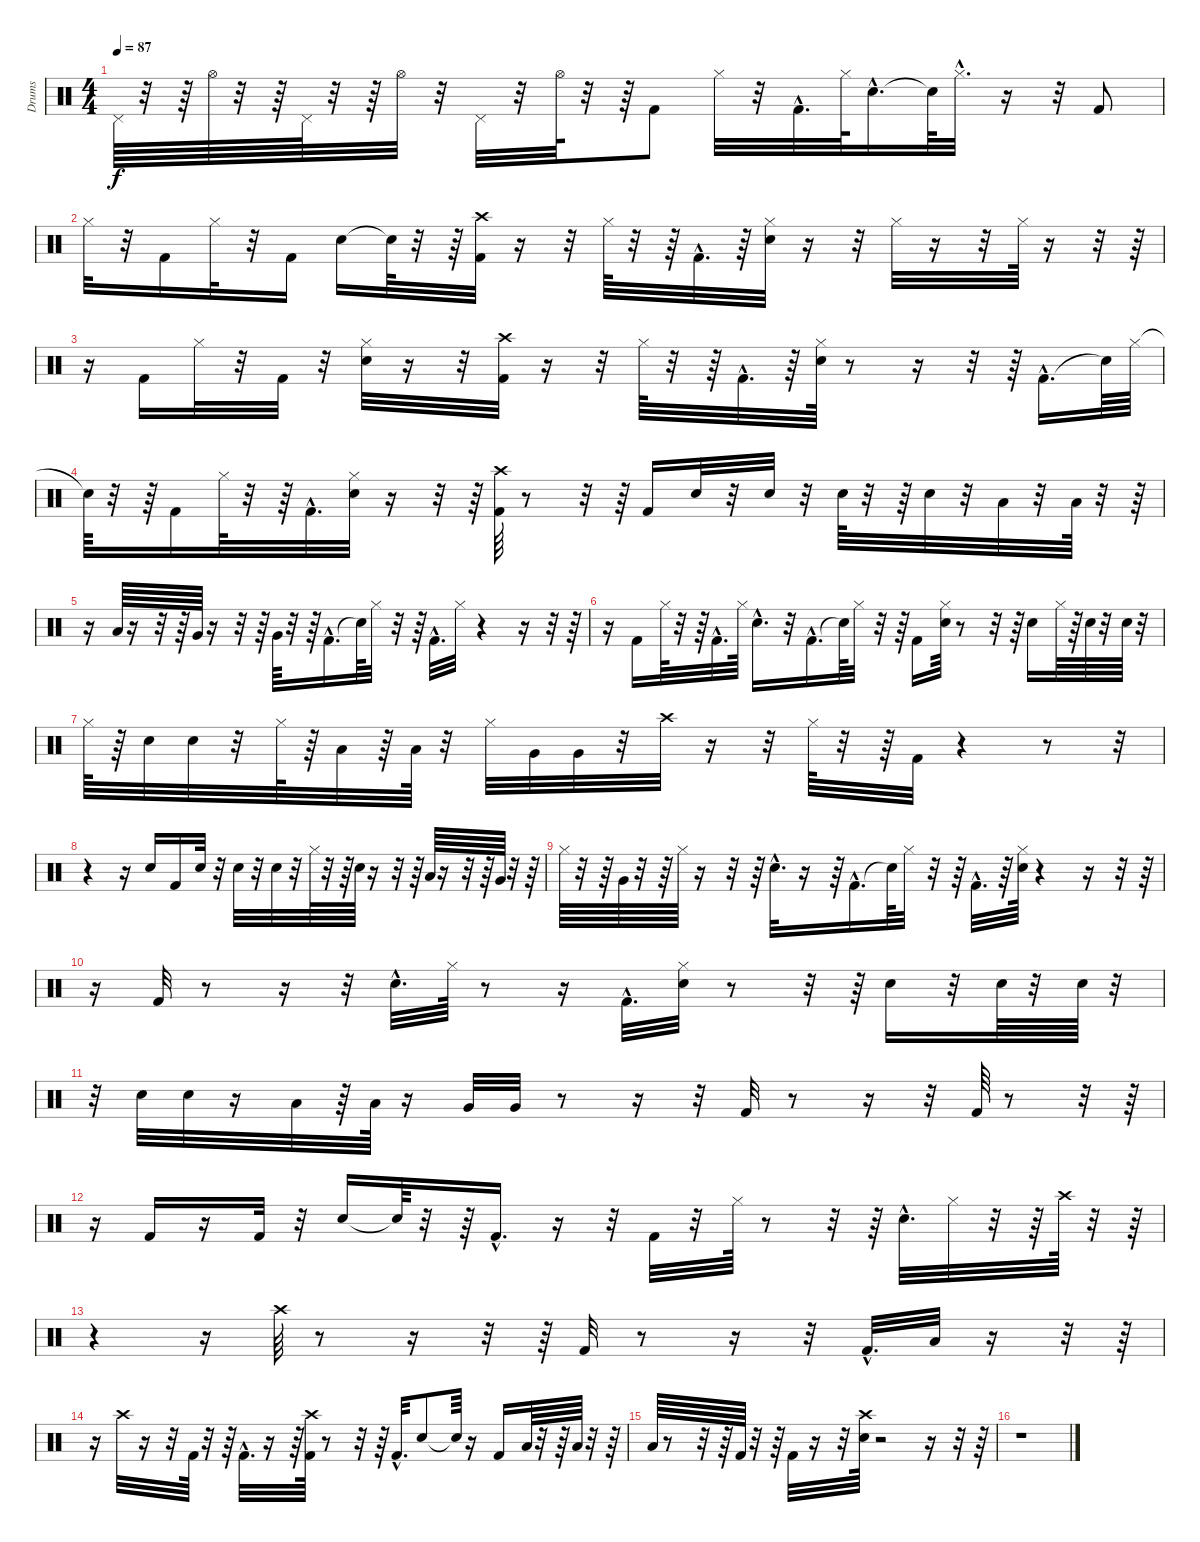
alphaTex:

\track ("Drums" "Drums") {instrument percussion}
\staff {score}
\articulation defaults
\ts (4 4)
\tempo 87
\clef neutral
\ks c "Pedal Hi-Hat (hit)".64{dy f}
r.32 r.64 "Hi-Hat (open)".64 r.32 r.64 "Pedal Hi-Hat (hit)".64 r.32 r.64 "Hi-Hat (open)".32 r.32 "Pedal Hi-Hat (hit)".32 r.32 "Hi-Hat (open)".64 r.32 r.64 "Kick (hit) 2".8 "Hi-Hat (closed)".32 r.32 "Kick (hit) 2"{hac}.32{d} "Hi-Hat (closed)".64 "Electric Snare (hit)"{hac}.16{d} "Snare (hit)"{t}.64 "Hi-Hat (closed)"{hac}.32{d} r.16 r.32 "Kick (hit) 2".8 |
"Hi-Hat (closed)".32 r.32 "Kick (hit) 2".16 "Hi-Hat (closed)".32 r.32 "Kick (hit) 2".16 "Electric Snare (hit)".16 "Snare (hit)"{t}.64 r.32 r.64 ("Kick (hit) 2" "Crash high (hit)").32 r.16 r.32 "Hi-Hat (closed)".64 r.32 r.64 "Kick (hit) 2"{hac}.32{d} r.64 ("Electric Snare (hit)" "Hi-Hat (closed)").32 r.16 r.32 "Hi-Hat (closed)".32 r.16 r.32 "Hi-Hat (closed)".64 r.16 r.32 r.64 |
r.16 "Kick (hit) 2".16 "Hi-Hat (closed)".32 r.32 "Kick (hit) 2".32 r.32 ("Electric Snare (hit)" "Hi-Hat (closed)").32 r.16 r.32 ("Kick (hit) 2" "Crash high (hit)").32 r.16 r.32 "Hi-Hat (closed)".64 r.32 r.64 "Kick (hit) 2"{hac}.32{d} r.64 ("Electric Snare (hit)" "Hi-Hat (closed)").64 r.8 r.16 r.32 r.64 "Kick (hit) 2"{hac}.16{d} "Snare (hit)"{t}.64 "Hi-Hat (closed)".64 |
"Snare (hit)"{t}.64 r.32 r.64 "Kick (hit) 2".16 "Hi-Hat (closed)".64 r.32 r.64 "Kick (hit) 2"{hac}.32{d} ("Electric Snare (hit)" "Hi-Hat (closed)").32 r.16 r.32 r.64 ("Kick (hit) 2" "Crash high (hit)").64 r.8 r.32 r.64 "Kick (hit) 2".16 "Electric Snare (hit)".32 r.32 "Electric Snare (hit)".32 r.32 "Electric Snare (hit)".64 r.32 r.64 "Electric Snare (hit)".32 r.32 "Low Tom (hit)".32 r.32 "Low Tom (hit)".64 r.32 r.64 |
r.16 "Low Tom (hit)".64 r.16 r.32 r.64 "Very Low Tom (hit)".64 r.16 r.32 r.64 "Very Low Tom (hit)".64 r.32 r.64 "Kick (hit) 2"{hac}.16{d} "Snare (hit)"{t}.64 "Hi-Hat (closed)".32 r.32 r.64 "Kick (hit) 2"{hac}.32{d} "Hi-Hat (closed)".32 r.4 r.16 r.32 r.64 |
r.16 "Kick (hit) 2".16 "Hi-Hat (closed)".64 r.32 r.64 "Kick (hit) 2"{hac}.32{d} "Hi-Hat (closed)".64 "Electric Snare (hit)"{hac}.16{d} r.32 "Kick (hit) 2"{hac}.16{d} "Snare (hit)"{t}.64 "Hi-Hat (closed)".32 r.32 r.64 "Kick (hit) 2".16 ("Electric Snare (hit)" "Hi-Hat (closed)").64 r.8 r.32 r.64 "Electric Snare (hit)".16 "Hi-Hat (closed)".64 r.64 "Electric Snare (hit)".64 r.32 "Electric Snare (hit)".64 r.32 |
"Hi-Hat (closed)".64 r.64 "Electric Snare (hit)".32 "Electric Snare (hit)".32 r.32 "Hi-Hat (closed)".64 r.64 "Low Tom (hit)".32 r.64 "Low Tom (hit)".64 r.32 "Hi-Hat (closed)".32 "Very Low Tom (hit)".32 "Very Low Tom (hit)".32 r.32 "Crash high (hit)".32 r.16 r.32 "Hi-Hat (closed)".64 r.32 r.64 "Kick (hit) 2".32 r.4 r.8 r.32 |
r.4 r.16 "Electric Snare (hit)".16 "Kick (hit) 2".16 "Electric Snare (hit)".32 r.32 "Electric Snare (hit)".32 r.32 "Electric Snare (hit)".32 r.32 "Hi-Hat (closed)".64 r.32 r.64 "Electric Snare (hit)".64 r.16 r.32 r.64 "Low Tom (hit)".64 r.16 r.32 r.64 "Very Low Tom (hit)".64 r.32 r.64 |
"Hi-Hat (closed)".64 r.32 r.64 "Very Low Tom (hit)".64 r.32 r.64 "Hi-Hat (closed)".64 r.16 r.32 r.64 "Electric Snare (hit)"{hac}.32{d} r.16 r.64 "Kick (hit) 2"{hac}.16{d} "Snare (hit)"{t}.64 "Hi-Hat (closed)".32 r.32 r.64 "Kick (hit) 2"{hac}.32{d} r.64 ("Electric Snare (hit)" "Hi-Hat (closed)").64 r.4 r.16 r.32 r.64 |
r.16 "Kick (hit) 2".32 r.8 r.16 r.32 "Electric Snare (hit)"{hac}.32{d} "Hi-Hat (closed)".64 r.8 r.16 "Kick (hit) 2"{hac}.32{d} ("Electric Snare (hit)" "Hi-Hat (closed)").32 r.8 r.32 r.64 "Electric Snare (hit)".16 r.32 "Electric Snare (hit)".64 r.32 "Electric Snare (hit)".64 r.32 |
r.32 "Electric Snare (hit)".32 "Electric Snare (hit)".32 r.16 "Low Tom (hit)".32 r.64 "Low Tom (hit)".64 r.16 "Very Low Tom (hit)".32 "Very Low Tom (hit)".32 r.8 r.16 r.32 "Kick (hit) 2".32 r.8 r.16 r.32 "Kick (hit) 2".64 r.8 r.32 r.64 |
r.16 "Kick (hit) 2".16 r.16 "Kick (hit) 2".32 r.32 "Electric Snare (hit)".16 "Snare (hit)"{t}.64 r.32 r.64 "Kick (hit) 2"{hac}.16{d} r.16 r.32 "Kick (hit) 2".32 r.32 "Hi-Hat (closed)".64 r.8 r.32 r.64 "Electric Snare (hit)"{hac}.32{d} "Hi-Hat (closed)".32 r.32 r.64 "Crash high (hit)".64 r.32 r.64 |
r.4 r.16 "Crash high (hit)".64 r.8 r.16 r.32 r.64 "Kick (hit) 2".32 r.8 r.16 r.32 "Kick (hit) 2"{hac}.32{d} "Low Tom (hit)".32 r.16 r.32 r.64 |
r.16 "Crash high (hit)".32 r.16 r.32 "Kick (hit) 2".64 r.32 r.64 "Kick (hit) 2"{hac}.32{d} r.16 r.64 ("Kick (hit) 2" "Crash high (hit)").64 r.8 r.32 r.64 "Kick (hit) 2"{hac}.32{d} "Electric Snare (hit)".8 "Snare (hit)"{t}.64 r.16 "Kick (hit) 2".16 "Low Tom (hit)".64 r.32 r.64 "Low Tom (hit)".64 r.32 r.64 |
"Low Tom (hit)".64 r.8 r.32 r.64 "Kick (hit) 2".64 r.32 r.64 "Kick (hit) 2".32 r.16 r.32 ("Electric Snare (hit)" "Crash high (hit)").64 r.2 r.16 r.32 r.64 |
r.1
